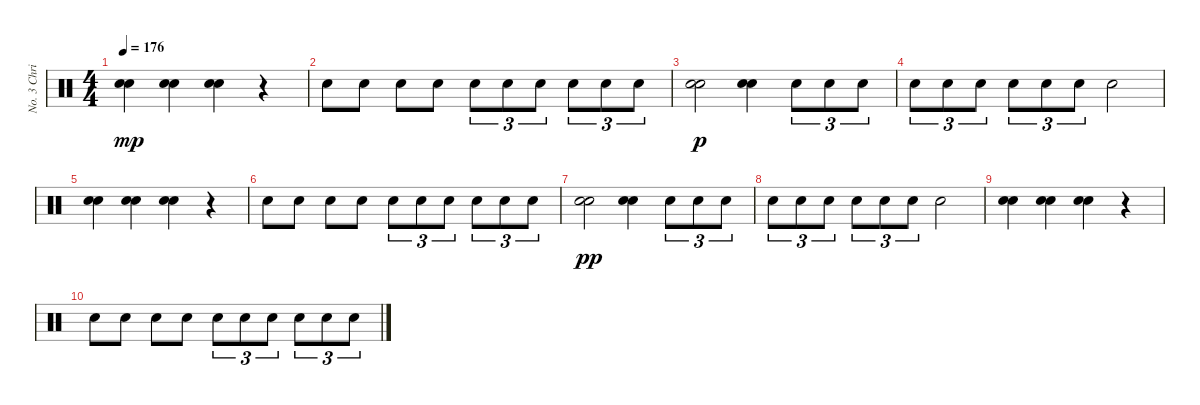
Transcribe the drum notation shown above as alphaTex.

\track ("No. 3 Chris" "No. 3 Chri") {instrument percussion}
\staff {score}
\articulation defaults
\ts (4 4)
\tempo 176
\clef neutral
\ks c
("Electric Snare (hit)" "Electric Snare (hit)").4{dy mp} ("Electric Snare (hit)" "Electric Snare (hit)").4 ("Electric Snare (hit)" "Electric Snare (hit)").4 r.4 |
"Electric Snare (hit)".8 "Electric Snare (hit)".8 "Electric Snare (hit)".8 "Electric Snare (hit)".8 "Electric Snare (hit)".8{tu (3 2)} "Electric Snare (hit)".8{tu (3 2)} "Electric Snare (hit)".8{tu (3 2)} "Electric Snare (hit)".8{tu (3 2)} "Electric Snare (hit)".8{tu (3 2)} "Electric Snare (hit)".8{tu (3 2)} |
("Electric Snare (hit)" "Electric Snare (hit)").2{dy p} ("Electric Snare (hit)" "Electric Snare (hit)").4 "Electric Snare (hit)".8{tu (3 2)} "Electric Snare (hit)".8{tu (3 2)} "Electric Snare (hit)".8{tu (3 2)} |
"Electric Snare (hit)".8{tu (3 2)} "Electric Snare (hit)".8{tu (3 2)} "Electric Snare (hit)".8{tu (3 2)} "Electric Snare (hit)".8{tu (3 2)} "Electric Snare (hit)".8{tu (3 2)} "Electric Snare (hit)".8{tu (3 2)} "Electric Snare (hit)".2 |
("Electric Snare (hit)" "Electric Snare (hit)").4 ("Electric Snare (hit)" "Electric Snare (hit)").4 ("Electric Snare (hit)" "Electric Snare (hit)").4 r.4 |
"Electric Snare (hit)".8 "Electric Snare (hit)".8 "Electric Snare (hit)".8 "Electric Snare (hit)".8 "Electric Snare (hit)".8{tu (3 2)} "Electric Snare (hit)".8{tu (3 2)} "Electric Snare (hit)".8{tu (3 2)} "Electric Snare (hit)".8{tu (3 2)} "Electric Snare (hit)".8{tu (3 2)} "Electric Snare (hit)".8{tu (3 2)} |
("Electric Snare (hit)" "Electric Snare (hit)").2{dy pp} ("Electric Snare (hit)" "Electric Snare (hit)").4 "Electric Snare (hit)".8{tu (3 2)} "Electric Snare (hit)".8{tu (3 2)} "Electric Snare (hit)".8{tu (3 2)} |
"Electric Snare (hit)".8{tu (3 2)} "Electric Snare (hit)".8{tu (3 2)} "Electric Snare (hit)".8{tu (3 2)} "Electric Snare (hit)".8{tu (3 2)} "Electric Snare (hit)".8{tu (3 2)} "Electric Snare (hit)".8{tu (3 2)} "Electric Snare (hit)".2 |
("Electric Snare (hit)" "Electric Snare (hit)").4 ("Electric Snare (hit)" "Electric Snare (hit)").4 ("Electric Snare (hit)" "Electric Snare (hit)").4 r.4 |
"Electric Snare (hit)".8 "Electric Snare (hit)".8 "Electric Snare (hit)".8 "Electric Snare (hit)".8 "Electric Snare (hit)".8{tu (3 2)} "Electric Snare (hit)".8{tu (3 2)} "Electric Snare (hit)".8{tu (3 2)} "Electric Snare (hit)".8{tu (3 2)} "Electric Snare (hit)".8{tu (3 2)} "Electric Snare (hit)".8{tu (3 2)}
